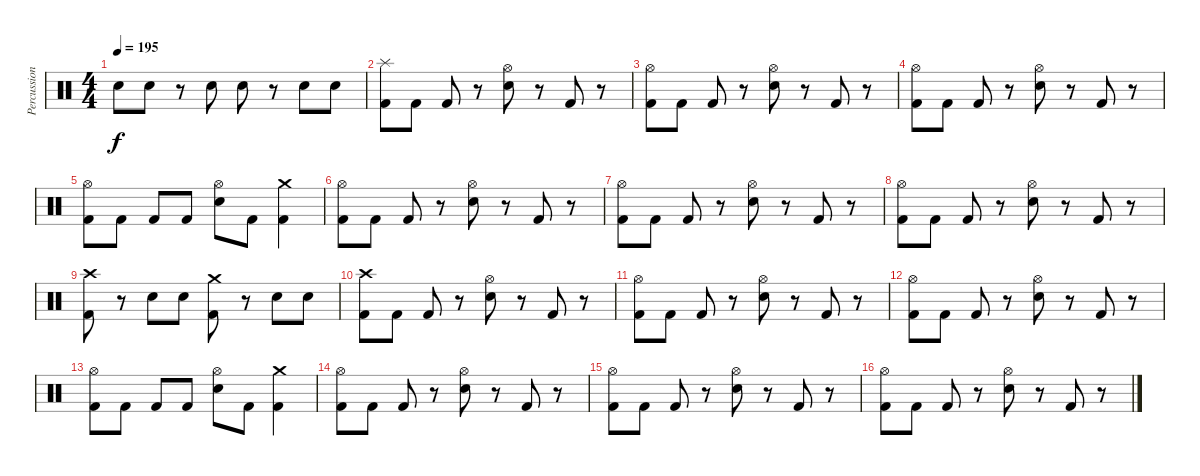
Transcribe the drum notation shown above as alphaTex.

\track ("Percussion" "Percussion") {instrument percussion}
\staff {score}
\articulation defaults
\ts (4 4)
\tempo 195
\clef neutral
\ks c "Snare (hit) 2".8{dy f} "Snare (hit) 2".8
r.8 "Snare (hit) 2".8 "Snare (hit) 2".8 r.8 "Snare (hit) 2".8 "Snare (hit) 2".8 |
("Splash (hit)" "Kick (hit) 2").8 "Kick (hit) 2".8 "Kick (hit) 2".8 r.8 ("Hi-Hat (open)" "Snare (hit) 2").8 r.8 "Kick (hit) 2".8 r.8 |
("Hi-Hat (open)" "Kick (hit) 2").8 "Kick (hit) 2".8 "Kick (hit) 2".8 r.8 ("Hi-Hat (open)" "Snare (hit) 2").8 r.8 "Kick (hit) 2".8 r.8 |
("Hi-Hat (open)" "Kick (hit) 2").8 "Kick (hit) 2".8 "Kick (hit) 2".8 r.8 ("Hi-Hat (open)" "Snare (hit) 2").8 r.8 "Kick (hit) 2".8 r.8 |
("Hi-Hat (open)" "Kick (hit) 2").8 "Kick (hit) 2".8 "Kick (hit) 2".8 "Kick (hit) 2".8 ("Hi-Hat (open)" "Snare (hit) 2").8 "Kick (hit) 2".8 ("Crash medium (hit)" "Kick (hit) 2").4 |
("Hi-Hat (open)" "Kick (hit) 2").8 "Kick (hit) 2".8 "Kick (hit) 2".8 r.8 ("Hi-Hat (open)" "Snare (hit) 2").8 r.8 "Kick (hit) 2".8 r.8 |
("Hi-Hat (open)" "Kick (hit) 2").8 "Kick (hit) 2".8 "Kick (hit) 2".8 r.8 ("Hi-Hat (open)" "Snare (hit) 2").8 r.8 "Kick (hit) 2".8 r.8 |
("Hi-Hat (open)" "Kick (hit) 2").8 "Kick (hit) 2".8 "Kick (hit) 2".8 r.8 ("Hi-Hat (open)" "Snare (hit) 2").8 r.8 "Kick (hit) 2".8 r.8 |
("Crash high (hit)" "Kick (hit) 2").8 r.8 "Snare (hit) 2".8 "Snare (hit) 2".8 ("Crash medium (hit)" "Kick (hit) 2").8 r.8 "Snare (hit) 2".8 "Snare (hit) 2".8 |
("Crash high (hit)" "Kick (hit) 2").8 "Kick (hit) 2".8 "Kick (hit) 2".8 r.8 ("Hi-Hat (open)" "Snare (hit) 2").8 r.8 "Kick (hit) 2".8 r.8 |
("Hi-Hat (open)" "Kick (hit) 2").8 "Kick (hit) 2".8 "Kick (hit) 2".8 r.8 ("Hi-Hat (open)" "Snare (hit) 2").8 r.8 "Kick (hit) 2".8 r.8 |
("Hi-Hat (open)" "Kick (hit) 2").8 "Kick (hit) 2".8 "Kick (hit) 2".8 r.8 ("Hi-Hat (open)" "Snare (hit) 2").8 r.8 "Kick (hit) 2".8 r.8 |
("Hi-Hat (open)" "Kick (hit) 2").8 "Kick (hit) 2".8 "Kick (hit) 2".8 "Kick (hit) 2".8 ("Hi-Hat (open)" "Snare (hit) 2").8 "Kick (hit) 2".8 ("Crash medium (hit)" "Kick (hit) 2").4 |
("Hi-Hat (open)" "Kick (hit) 2").8 "Kick (hit) 2".8 "Kick (hit) 2".8 r.8 ("Hi-Hat (open)" "Snare (hit) 2").8 r.8 "Kick (hit) 2".8 r.8 |
("Hi-Hat (open)" "Kick (hit) 2").8 "Kick (hit) 2".8 "Kick (hit) 2".8 r.8 ("Hi-Hat (open)" "Snare (hit) 2").8 r.8 "Kick (hit) 2".8 r.8 |
("Hi-Hat (open)" "Kick (hit) 2").8 "Kick (hit) 2".8 "Kick (hit) 2".8 r.8 ("Hi-Hat (open)" "Snare (hit) 2").8 r.8 "Kick (hit) 2".8 r.8
